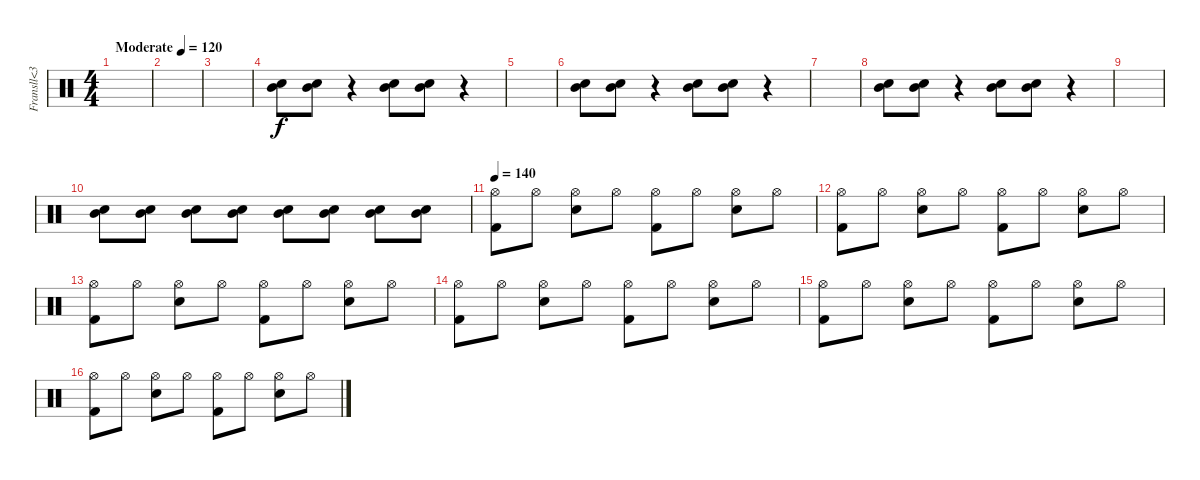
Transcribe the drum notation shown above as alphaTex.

\track ("Fransll<3" "Fransll<3") {instrument percussion}
\staff {score}
\articulation defaults
\ts (4 4)
\tempo (120 "Moderate")
\clef neutral
\ks c
|
|
|
("Mid Tom (hit)" "Snare (hit) 2").8 ("Mid Tom (hit)" "Snare (hit) 2").8 r.4 ("Mid Tom (hit)" "Snare (hit) 2").8 ("Mid Tom (hit)" "Snare (hit) 2").8 r.4 |
|
("Mid Tom (hit)" "Snare (hit) 2").8 ("Mid Tom (hit)" "Snare (hit) 2").8 r.4 ("Mid Tom (hit)" "Snare (hit) 2").8 ("Mid Tom (hit)" "Snare (hit) 2").8 r.4 |
|
("Mid Tom (hit)" "Snare (hit) 2").8 ("Mid Tom (hit)" "Snare (hit) 2").8 r.4 ("Mid Tom (hit)" "Snare (hit) 2").8 ("Mid Tom (hit)" "Snare (hit) 2").8 r.4 |
|
("Mid Tom (hit)" "Snare (hit) 2").8 ("Mid Tom (hit)" "Snare (hit) 2").8 ("Mid Tom (hit)" "Snare (hit) 2").8 ("Mid Tom (hit)" "Snare (hit) 2").8 ("Mid Tom (hit)" "Snare (hit) 2").8 ("Mid Tom (hit)" "Snare (hit) 2").8 ("Mid Tom (hit)" "Snare (hit) 2").8 ("Mid Tom (hit)" "Snare (hit) 2").8 |
\tempo 140
("Hi-Hat (open)" "Kick (hit) 2").8 "Hi-Hat (open)".8 ("Hi-Hat (open)" "Electric Snare (hit)").8 "Hi-Hat (open)".8 ("Hi-Hat (open)" "Kick (hit) 2").8 "Hi-Hat (open)".8 ("Hi-Hat (open)" "Electric Snare (hit)").8 "Hi-Hat (open)".8 |
("Hi-Hat (open)" "Kick (hit) 2").8 "Hi-Hat (open)".8 ("Hi-Hat (open)" "Electric Snare (hit)").8 "Hi-Hat (open)".8 ("Hi-Hat (open)" "Kick (hit) 2").8 "Hi-Hat (open)".8 ("Hi-Hat (open)" "Electric Snare (hit)").8 "Hi-Hat (open)".8 |
("Hi-Hat (open)" "Kick (hit) 2").8 "Hi-Hat (open)".8 ("Hi-Hat (open)" "Electric Snare (hit)").8 "Hi-Hat (open)".8 ("Hi-Hat (open)" "Kick (hit) 2").8 "Hi-Hat (open)".8 ("Hi-Hat (open)" "Electric Snare (hit)").8 "Hi-Hat (open)".8 |
("Hi-Hat (open)" "Kick (hit) 2").8 "Hi-Hat (open)".8 ("Hi-Hat (open)" "Electric Snare (hit)").8 "Hi-Hat (open)".8 ("Hi-Hat (open)" "Kick (hit) 2").8 "Hi-Hat (open)".8 ("Hi-Hat (open)" "Electric Snare (hit)").8 "Hi-Hat (open)".8 |
("Hi-Hat (open)" "Kick (hit) 2").8 "Hi-Hat (open)".8 ("Hi-Hat (open)" "Electric Snare (hit)").8 "Hi-Hat (open)".8 ("Hi-Hat (open)" "Kick (hit) 2").8 "Hi-Hat (open)".8 ("Hi-Hat (open)" "Electric Snare (hit)").8 "Hi-Hat (open)".8 |
("Hi-Hat (open)" "Kick (hit) 2").8 "Hi-Hat (open)".8 ("Hi-Hat (open)" "Electric Snare (hit)").8 "Hi-Hat (open)".8 ("Hi-Hat (open)" "Kick (hit) 2").8 "Hi-Hat (open)".8 ("Hi-Hat (open)" "Electric Snare (hit)").8 "Hi-Hat (open)".8
